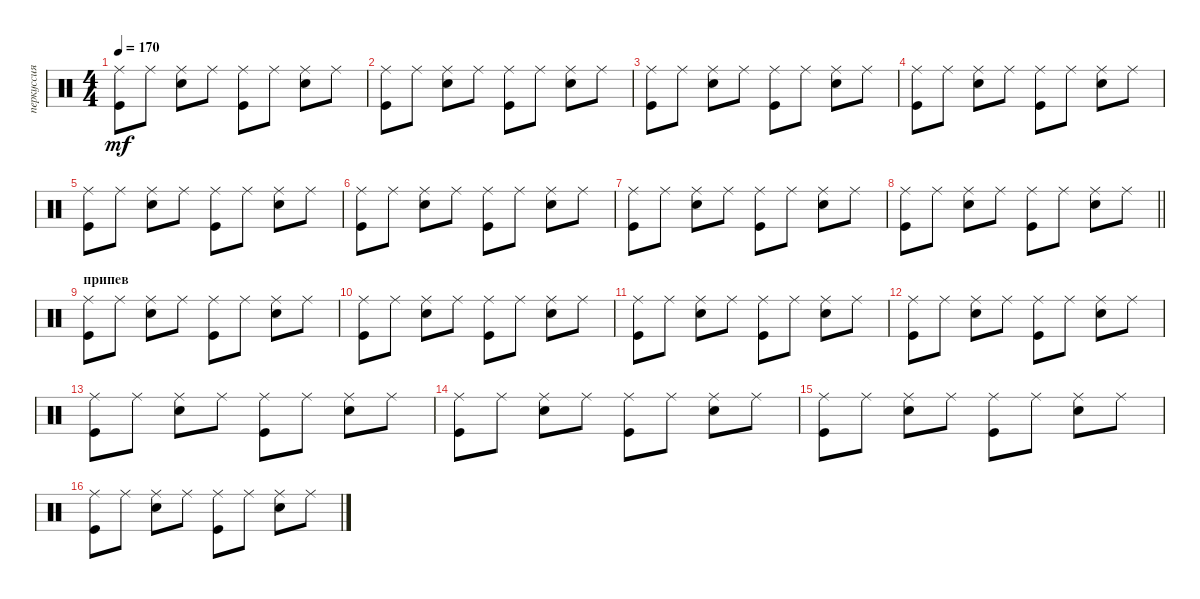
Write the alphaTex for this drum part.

\track ("перкуссия" "перкуссия") {instrument percussion}
\staff {score}
\articulation defaults
\ts (4 4)
\tempo 170
\clef neutral
\ks c
("Ride (middle)" "Kick (hit)").8{dy mf} "Ride (middle)".8 ("Ride (middle)" "Snare (hit) 2").8 "Ride (middle)".8 ("Ride (middle)" "Kick (hit)").8 "Ride (middle)".8 ("Ride (middle)" "Snare (hit) 2").8 "Ride (middle)".8 |
("Ride (middle)" "Kick (hit)").8 "Ride (middle)".8 ("Ride (middle)" "Snare (hit) 2").8 "Ride (middle)".8 ("Ride (middle)" "Kick (hit)").8 "Ride (middle)".8 ("Ride (middle)" "Snare (hit) 2").8 "Ride (middle)".8 |
("Ride (middle)" "Kick (hit)").8 "Ride (middle)".8 ("Ride (middle)" "Snare (hit) 2").8 "Ride (middle)".8 ("Ride (middle)" "Kick (hit)").8 "Ride (middle)".8 ("Ride (middle)" "Snare (hit) 2").8 "Ride (middle)".8 |
("Ride (middle)" "Kick (hit)").8 "Ride (middle)".8 ("Ride (middle)" "Snare (hit) 2").8 "Ride (middle)".8 ("Ride (middle)" "Kick (hit)").8 "Ride (middle)".8 ("Ride (middle)" "Snare (hit) 2").8 "Ride (middle)".8 |
("Ride (middle)" "Kick (hit)").8 "Ride (middle)".8 ("Ride (middle)" "Snare (hit) 2").8 "Ride (middle)".8 ("Ride (middle)" "Kick (hit)").8 "Ride (middle)".8 ("Ride (middle)" "Snare (hit) 2").8 "Ride (middle)".8 |
("Ride (middle)" "Kick (hit)").8 "Ride (middle)".8 ("Ride (middle)" "Snare (hit) 2").8 "Ride (middle)".8 ("Ride (middle)" "Kick (hit)").8 "Ride (middle)".8 ("Ride (middle)" "Snare (hit) 2").8 "Ride (middle)".8 |
("Ride (middle)" "Kick (hit)").8 "Ride (middle)".8 ("Ride (middle)" "Snare (hit) 2").8 "Ride (middle)".8 ("Ride (middle)" "Kick (hit)").8 "Ride (middle)".8 ("Ride (middle)" "Snare (hit) 2").8 "Ride (middle)".8 |
\barLineRight lightlight
("Ride (middle)" "Kick (hit)").8 "Ride (middle)".8 ("Ride (middle)" "Snare (hit) 2").8 "Ride (middle)".8 ("Ride (middle)" "Kick (hit)").8 "Ride (middle)".8 ("Ride (middle)" "Snare (hit) 2").8 "Ride (middle)".8 |
\section ("" "припев")
("Ride (middle)" "Kick (hit)").8 "Ride (middle)".8 ("Ride (middle)" "Snare (hit) 2").8 "Ride (middle)".8 ("Ride (middle)" "Kick (hit)").8 "Ride (middle)".8 ("Ride (middle)" "Snare (hit) 2").8 "Ride (middle)".8 |
("Ride (middle)" "Kick (hit)").8 "Ride (middle)".8 ("Ride (middle)" "Snare (hit) 2").8 "Ride (middle)".8 ("Ride (middle)" "Kick (hit)").8 "Ride (middle)".8 ("Ride (middle)" "Snare (hit) 2").8 "Ride (middle)".8 |
("Ride (middle)" "Kick (hit)").8 "Ride (middle)".8 ("Ride (middle)" "Snare (hit) 2").8 "Ride (middle)".8 ("Ride (middle)" "Kick (hit)").8 "Ride (middle)".8 ("Ride (middle)" "Snare (hit) 2").8 "Ride (middle)".8 |
("Ride (middle)" "Kick (hit)").8 "Ride (middle)".8 ("Ride (middle)" "Snare (hit) 2").8 "Ride (middle)".8 ("Ride (middle)" "Kick (hit)").8 "Ride (middle)".8 ("Ride (middle)" "Snare (hit) 2").8 "Ride (middle)".8 |
("Ride (middle)" "Kick (hit)").8 "Ride (middle)".8 ("Ride (middle)" "Snare (hit) 2").8 "Ride (middle)".8 ("Ride (middle)" "Kick (hit)").8 "Ride (middle)".8 ("Ride (middle)" "Snare (hit) 2").8 "Ride (middle)".8 |
("Ride (middle)" "Kick (hit)").8 "Ride (middle)".8 ("Ride (middle)" "Snare (hit) 2").8 "Ride (middle)".8 ("Ride (middle)" "Kick (hit)").8 "Ride (middle)".8 ("Ride (middle)" "Snare (hit) 2").8 "Ride (middle)".8 |
("Ride (middle)" "Kick (hit)").8 "Ride (middle)".8 ("Ride (middle)" "Snare (hit) 2").8 "Ride (middle)".8 ("Ride (middle)" "Kick (hit)").8 "Ride (middle)".8 ("Ride (middle)" "Snare (hit) 2").8 "Ride (middle)".8 |
("Ride (middle)" "Kick (hit)").8 "Ride (middle)".8 ("Ride (middle)" "Snare (hit) 2").8 "Ride (middle)".8 ("Ride (middle)" "Kick (hit)").8 "Ride (middle)".8 ("Ride (middle)" "Snare (hit) 2").8 "Ride (middle)".8
